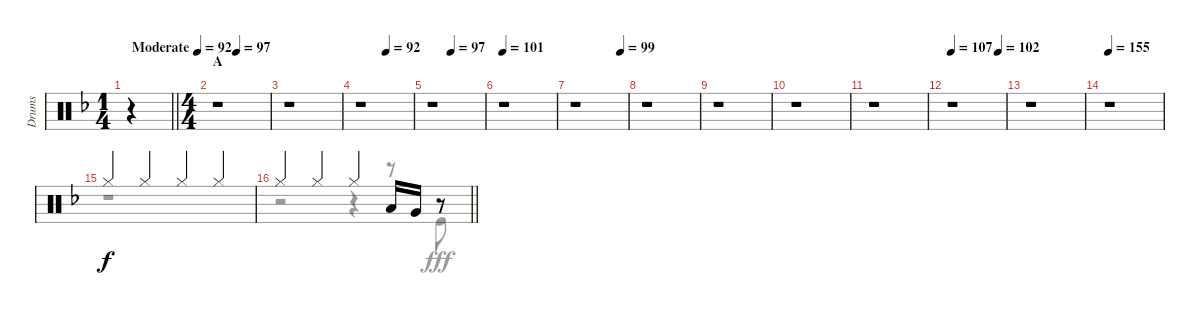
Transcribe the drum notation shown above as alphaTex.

\track ("Drums" "Drums") {instrument percussion}
\staff {score}
\articulation defaults
\voice
\ts (1 4)
\tempo (92 "Moderate")
\clef neutral
\barLineRight lightlight
\ks f
r.4{dy f} |
\ts (4 4)
\section ("" "A")
\tempo (97 0.375)
r.1 |
r.1 |
\tempo (92 0.5)
r.1 |
\tempo (97 0.375)
r.1 |
\tempo 101
r.1 |
\tempo (99 0.875)
r.1 |
r.1 |
r.1 |
r.1 |
r.1 |
\tempo 107
\tempo (102 0.875)
r.1 |
r.1 |
\tempo 155
r.1 |
"Hi-Hat (closed)".4 "Hi-Hat (closed)".4 "Hi-Hat (closed)".4 "Hi-Hat (closed)".4 |
\barLineRight lightlight "Hi-Hat (closed)".4 "Hi-Hat (closed)".4 "Hi-Hat (closed)".4 "Low Tom (hit)".16 "Very Low Tom (hit)".16
r.8
\voice
\clef neutral
\ottava regular
\simile none
\barLineRight lightlight
\ks f
r.4{dy fff} |
r.1 |
r.1 |
r.1 |
r.1 |
r.1 |
r.1 |
r.1 |
r.1 |
r.1 |
r.1 |
r.1 |
r.1 |
r.1 |
r.1 |
\barLineRight lightlight
r.2 r.4 r.8 "Kick (hit)".8
